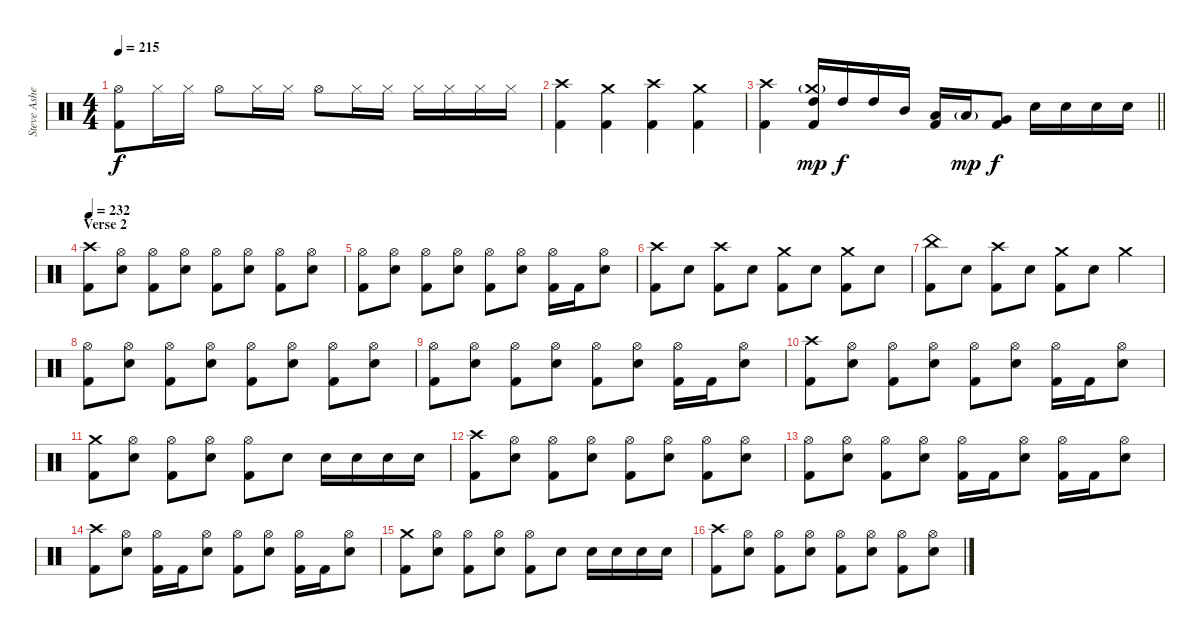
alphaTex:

\track ("Steve Asheim" "Steve Ashe") {instrument percussion}
\staff {score}
\articulation defaults
\ts (4 4)
\tempo 215
\clef neutral
\ks c
("Hi-Hat (open)" "Kick (hit) 2").8{dy f} "Hi-Hat (closed)".16 "Hi-Hat (closed)".16 "Hi-Hat (open)".8 "Hi-Hat (closed)".16 "Hi-Hat (closed)".16 "Hi-Hat (open)".8 "Hi-Hat (closed)".16 "Hi-Hat (closed)".16 "Hi-Hat (closed)".16 "Hi-Hat (closed)".16 "Hi-Hat (closed)".16 "Hi-Hat (closed)".16 |
("Crash high (hit)" "Kick (hit) 2").4 ("Crash medium (hit)" "Kick (hit) 2").4 ("Crash high (hit)" "Kick (hit) 2").4 ("Crash medium (hit)" "Kick (hit) 2").4 |
\barLineRight lightlight
("Crash high (hit)" "Kick (hit) 2").4 ("Crash medium (hit)"{g} "High Tom (hit)" "Kick (hit) 2").16{dy mp} "High Tom (hit)".16{dy f} "High Tom (hit)".16 "Mid Tom (hit)".16 ("Low Tom (hit)" "Kick (hit) 2").16 "Low Tom (hit)"{g}.16{dy mp} ("Very Low Tom (hit)" "Kick (hit) 2").8{dy f} "Electric Snare (hit)".16 "Electric Snare (hit)".16 "Electric Snare (hit)".16 "Electric Snare (hit)".16 |
\section ("" "Verse 2")
\tempo 232
("Crash high (hit)" "Kick (hit) 2").8 ("Hi-Hat (open)" "Electric Snare (hit)").8 ("Hi-Hat (open)" "Kick (hit) 2").8 ("Hi-Hat (open)" "Electric Snare (hit)").8 ("Hi-Hat (open)" "Kick (hit) 2").8 ("Hi-Hat (open)" "Electric Snare (hit)").8 ("Hi-Hat (open)" "Kick (hit) 2").8 ("Hi-Hat (open)" "Electric Snare (hit)").8 |
("Hi-Hat (open)" "Kick (hit) 2").8 ("Hi-Hat (open)" "Electric Snare (hit)").8 ("Hi-Hat (open)" "Kick (hit) 2").8 ("Hi-Hat (open)" "Electric Snare (hit)").8 ("Hi-Hat (open)" "Kick (hit) 2").8 ("Hi-Hat (open)" "Electric Snare (hit)").8 ("Hi-Hat (open)" "Kick (hit) 2").16 "Kick (hit) 2".16 ("Hi-Hat (open)" "Electric Snare (hit)").8 |
("Crash high (hit)" "Kick (hit) 2").8 "Electric Snare (hit)".8 ("Crash high (hit)" "Kick (hit) 2").8 "Electric Snare (hit)".8 ("Crash medium (hit)" "Kick (hit) 2").8 "Electric Snare (hit)".8 ("Crash medium (hit)" "Kick (hit) 2").8 "Electric Snare (hit)".8 |
("China (hit)" "Kick (hit) 2").8 "Electric Snare (hit)".8 ("Crash high (hit)" "Kick (hit) 2").8 "Electric Snare (hit)".8 ("Crash medium (hit)" "Kick (hit) 2").8 "Electric Snare (hit)".8 "Crash medium (hit)".4 |
("Hi-Hat (open)" "Kick (hit) 2").8 ("Hi-Hat (open)" "Electric Snare (hit)").8 ("Hi-Hat (open)" "Kick (hit) 2").8 ("Hi-Hat (open)" "Electric Snare (hit)").8 ("Hi-Hat (open)" "Kick (hit) 2").8 ("Hi-Hat (open)" "Electric Snare (hit)").8 ("Hi-Hat (open)" "Kick (hit) 2").8 ("Hi-Hat (open)" "Electric Snare (hit)").8 |
("Hi-Hat (open)" "Kick (hit) 2").8 ("Hi-Hat (open)" "Electric Snare (hit)").8 ("Hi-Hat (open)" "Kick (hit) 2").8 ("Hi-Hat (open)" "Electric Snare (hit)").8 ("Hi-Hat (open)" "Kick (hit) 2").8 ("Hi-Hat (open)" "Electric Snare (hit)").8 ("Hi-Hat (open)" "Kick (hit) 2").16 "Kick (hit) 2".16 ("Hi-Hat (open)" "Electric Snare (hit)").8 |
("Crash high (hit)" "Kick (hit) 2").8 ("Hi-Hat (open)" "Electric Snare (hit)").8 ("Hi-Hat (open)" "Kick (hit) 2").8 ("Hi-Hat (open)" "Electric Snare (hit)").8 ("Hi-Hat (open)" "Kick (hit) 2").8 ("Hi-Hat (open)" "Electric Snare (hit)").8 ("Hi-Hat (open)" "Kick (hit) 2").16 "Kick (hit) 2".16 ("Hi-Hat (open)" "Electric Snare (hit)").8 |
("Crash medium (hit)" "Kick (hit) 2").8 ("Hi-Hat (open)" "Electric Snare (hit)").8 ("Hi-Hat (open)" "Kick (hit) 2").8 ("Hi-Hat (open)" "Electric Snare (hit)").8 ("Hi-Hat (open)" "Kick (hit) 2").8 "Electric Snare (hit)".8 "Electric Snare (hit)".16 "Electric Snare (hit)".16 "Electric Snare (hit)".16 "Electric Snare (hit)".16 |
("Crash high (hit)" "Kick (hit) 2").8 ("Hi-Hat (open)" "Electric Snare (hit)").8 ("Hi-Hat (open)" "Kick (hit) 2").8 ("Hi-Hat (open)" "Electric Snare (hit)").8 ("Hi-Hat (open)" "Kick (hit) 2").8 ("Hi-Hat (open)" "Electric Snare (hit)").8 ("Hi-Hat (open)" "Kick (hit) 2").8 ("Hi-Hat (open)" "Electric Snare (hit)").8 |
("Hi-Hat (open)" "Kick (hit) 2").8 ("Hi-Hat (open)" "Electric Snare (hit)").8 ("Hi-Hat (open)" "Kick (hit) 2").8 ("Hi-Hat (open)" "Electric Snare (hit)").8 ("Hi-Hat (open)" "Kick (hit) 2").16 "Kick (hit) 2".16 ("Hi-Hat (open)" "Electric Snare (hit)").8 ("Hi-Hat (open)" "Kick (hit) 2").16 "Kick (hit) 2".16 ("Hi-Hat (open)" "Electric Snare (hit)").8 |
("Crash high (hit)" "Kick (hit) 2").8 ("Hi-Hat (open)" "Electric Snare (hit)").8 ("Hi-Hat (open)" "Kick (hit) 2").16 "Kick (hit) 2".16 ("Hi-Hat (open)" "Electric Snare (hit)").8 ("Hi-Hat (open)" "Kick (hit) 2").8 ("Hi-Hat (open)" "Electric Snare (hit)").8 ("Hi-Hat (open)" "Kick (hit) 2").16 "Kick (hit) 2".16 ("Hi-Hat (open)" "Electric Snare (hit)").8 |
("Crash medium (hit)" "Kick (hit) 2").8 ("Hi-Hat (open)" "Electric Snare (hit)").8 ("Hi-Hat (open)" "Kick (hit) 2").8 ("Hi-Hat (open)" "Electric Snare (hit)").8 ("Hi-Hat (open)" "Kick (hit) 2").8 "Electric Snare (hit)".8 "Electric Snare (hit)".16 "Electric Snare (hit)".16 "Electric Snare (hit)".16 "Electric Snare (hit)".16 |
("Crash high (hit)" "Kick (hit) 2").8 ("Hi-Hat (open)" "Electric Snare (hit)").8 ("Hi-Hat (open)" "Kick (hit) 2").8 ("Hi-Hat (open)" "Electric Snare (hit)").8 ("Hi-Hat (open)" "Kick (hit) 2").8 ("Hi-Hat (open)" "Electric Snare (hit)").8 ("Hi-Hat (open)" "Kick (hit) 2").8 ("Hi-Hat (open)" "Electric Snare (hit)").8
